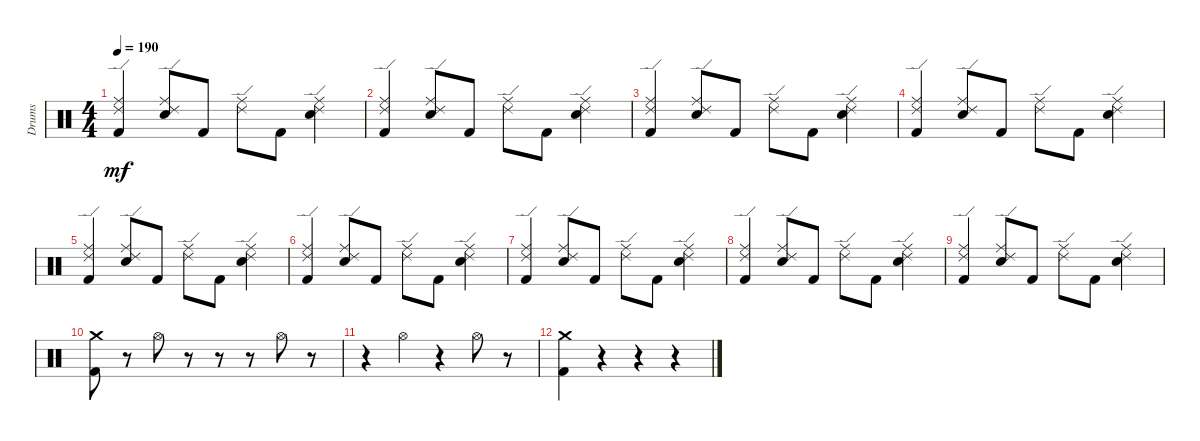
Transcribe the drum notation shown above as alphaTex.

\track ("Drums" "Drums") {instrument percussion}
\staff {score}
\articulation defaults
\ts (4 4)
\tempo 190
\clef neutral
\ks c
("Ride (edge) 2" "Ride (middle)" "Kick (hit) 2").4{dy mf} ("Ride (edge) 2" "Ride (middle)" "Snare (hit) 2").8 "Kick (hit) 2".8 ("Ride (edge) 2" "Ride (middle)").8 "Kick (hit) 2".8 ("Ride (edge) 2" "Ride (middle)" "Snare (hit) 2").4 |
("Ride (edge) 2" "Ride (middle)" "Kick (hit) 2").4 ("Ride (edge) 2" "Ride (middle)" "Snare (hit) 2").8 "Kick (hit) 2".8 ("Ride (edge) 2" "Ride (middle)").8 "Kick (hit) 2".8 ("Ride (edge) 2" "Ride (middle)" "Snare (hit) 2").4 |
("Ride (edge) 2" "Ride (middle)" "Kick (hit) 2").4 ("Ride (edge) 2" "Ride (middle)" "Snare (hit) 2").8 "Kick (hit) 2".8 ("Ride (edge) 2" "Ride (middle)").8 "Kick (hit) 2".8 ("Ride (edge) 2" "Ride (middle)" "Snare (hit) 2").4 |
("Ride (edge) 2" "Ride (middle)" "Kick (hit) 2").4 ("Ride (edge) 2" "Ride (middle)" "Snare (hit) 2").8 "Kick (hit) 2".8 ("Ride (edge) 2" "Ride (middle)").8 "Kick (hit) 2".8 ("Ride (edge) 2" "Ride (middle)" "Snare (hit) 2").4 |
("Ride (edge) 2" "Ride (middle)" "Kick (hit) 2").4 ("Ride (edge) 2" "Ride (middle)" "Snare (hit) 2").8 "Kick (hit) 2".8 ("Ride (edge) 2" "Ride (middle)").8 "Kick (hit) 2".8 ("Ride (edge) 2" "Ride (middle)" "Snare (hit) 2").4 |
("Ride (edge) 2" "Ride (middle)" "Kick (hit) 2").4 ("Ride (edge) 2" "Ride (middle)" "Snare (hit) 2").8 "Kick (hit) 2".8 ("Ride (edge) 2" "Ride (middle)").8 "Kick (hit) 2".8 ("Ride (edge) 2" "Ride (middle)" "Snare (hit) 2").4 |
("Ride (edge) 2" "Ride (middle)" "Kick (hit) 2").4 ("Ride (edge) 2" "Ride (middle)" "Snare (hit) 2").8 "Kick (hit) 2".8 ("Ride (edge) 2" "Ride (middle)").8 "Kick (hit) 2".8 ("Ride (edge) 2" "Ride (middle)" "Snare (hit) 2").4 |
("Ride (edge) 2" "Ride (middle)" "Kick (hit) 2").4 ("Ride (edge) 2" "Ride (middle)" "Snare (hit) 2").8 "Kick (hit) 2".8 ("Ride (edge) 2" "Ride (middle)").8 "Kick (hit) 2".8 ("Ride (edge) 2" "Ride (middle)" "Snare (hit) 2").4 |
("Ride (edge) 2" "Ride (middle)" "Kick (hit) 2").4 ("Ride (edge) 2" "Ride (middle)" "Snare (hit) 2").8 "Kick (hit) 2".8 ("Ride (edge) 2" "Ride (middle)").8 "Kick (hit) 2".8 ("Ride (edge) 2" "Ride (middle)" "Snare (hit) 2").4 |
("Crash medium (hit)" "Kick (hit) 2").8 r.8 "Hi-Hat (open)".8 r.8 r.8 r.8 "Hi-Hat (open)".8 r.8 |
r.4 "Hi-Hat (open)".4 r.4 "Hi-Hat (open)".8 r.8 |
("Crash medium (hit)" "Kick (hit) 2").4 r.4 r.4 r.4
